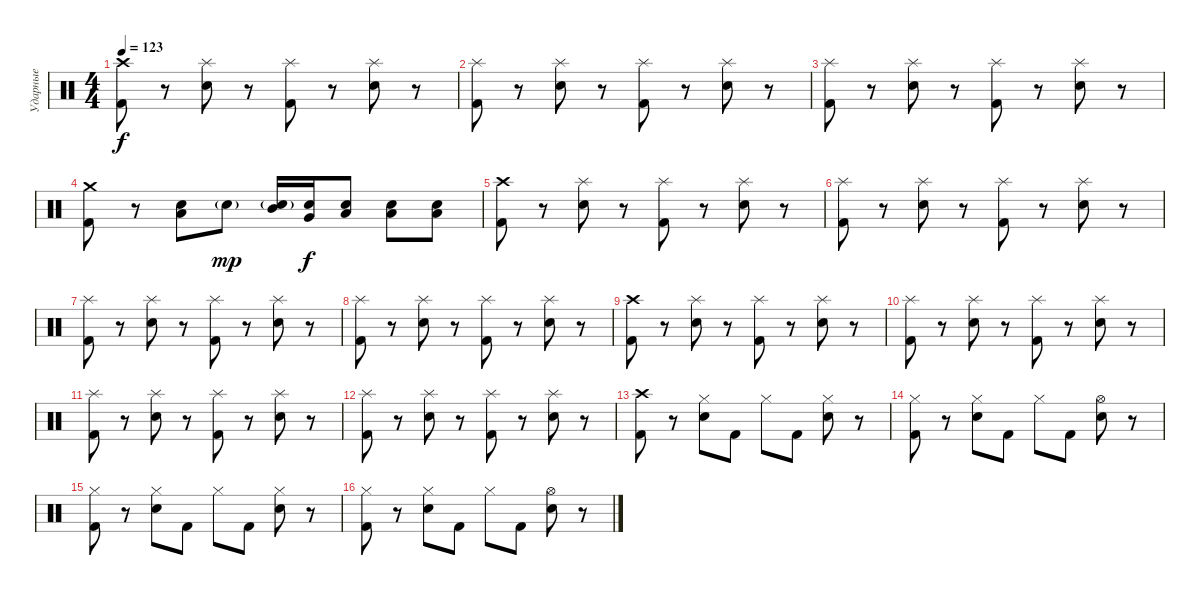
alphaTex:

\track ("Ударные" "Ударные") {instrument percussion}
\staff {score}
\articulation defaults
\ts (4 4)
\tempo 123
\clef neutral
\ks c
("Crash high (hit)" "Kick (hit) 2").8{dy f} r.8 ("Splash (hit)" "Electric Snare (hit)").8 r.8 ("Splash (hit)" "Kick (hit) 2").8 r.8 ("Splash (hit)" "Electric Snare (hit)").8 r.8 |
("Splash (hit)" "Kick (hit) 2").8 r.8 ("Splash (hit)" "Electric Snare (hit)").8 r.8 ("Splash (hit)" "Kick (hit) 2").8 r.8 ("Splash (hit)" "Electric Snare (hit)").8 r.8 |
("Splash (hit)" "Kick (hit) 2").8 r.8 ("Splash (hit)" "Electric Snare (hit)").8 r.8 ("Splash (hit)" "Kick (hit) 2").8 r.8 ("Splash (hit)" "Electric Snare (hit)").8 r.8 |
("Crash medium (hit)" "Kick (hit) 2").8 r.8 ("Low Tom (hit)" "Electric Snare (hit)").8 "Electric Snare (hit)"{g}.8{dy mp} ("Mid Tom (hit)" "Electric Snare (hit)"{g}).16 ("Very Low Tom (hit)" "Electric Snare (hit)").16{dy f} ("Low Floor Tom (hit)" "Electric Snare (hit)").8 ("Low Floor Tom (hit)" "Electric Snare (hit)").8 ("Low Floor Tom (hit)" "Electric Snare (hit)").8 |
("Crash high (hit)" "Kick (hit) 2").8 r.8 ("Splash (hit)" "Electric Snare (hit)").8 r.8 ("Splash (hit)" "Kick (hit) 2").8 r.8 ("Splash (hit)" "Electric Snare (hit)").8 r.8 |
("Splash (hit)" "Kick (hit) 2").8 r.8 ("Splash (hit)" "Electric Snare (hit)").8 r.8 ("Splash (hit)" "Kick (hit) 2").8 r.8 ("Splash (hit)" "Electric Snare (hit)").8 r.8 |
("Splash (hit)" "Kick (hit) 2").8 r.8 ("Splash (hit)" "Electric Snare (hit)").8 r.8 ("Splash (hit)" "Kick (hit) 2").8 r.8 ("Splash (hit)" "Electric Snare (hit)").8 r.8 |
("Splash (hit)" "Kick (hit) 2").8 r.8 ("Splash (hit)" "Electric Snare (hit)").8 r.8 ("Splash (hit)" "Kick (hit) 2").8 r.8 ("Splash (hit)" "Electric Snare (hit)").8 r.8 |
("Crash high (hit)" "Kick (hit) 2").8 r.8 ("Splash (hit)" "Electric Snare (hit)").8 r.8 ("Splash (hit)" "Kick (hit) 2").8 r.8 ("Splash (hit)" "Electric Snare (hit)").8 r.8 |
("Splash (hit)" "Kick (hit) 2").8 r.8 ("Splash (hit)" "Electric Snare (hit)").8 r.8 ("Splash (hit)" "Kick (hit) 2").8 r.8 ("Splash (hit)" "Electric Snare (hit)").8 r.8 |
("Splash (hit)" "Kick (hit) 2").8 r.8 ("Splash (hit)" "Electric Snare (hit)").8 r.8 ("Splash (hit)" "Kick (hit) 2").8 r.8 ("Splash (hit)" "Electric Snare (hit)").8 r.8 |
("Splash (hit)" "Kick (hit) 2").8 r.8 ("Splash (hit)" "Electric Snare (hit)").8 r.8 ("Splash (hit)" "Kick (hit) 2").8 r.8 ("Splash (hit)" "Electric Snare (hit)").8 r.8 |
("Crash high (hit)" "Kick (hit) 2").8 r.8 ("Hi-Hat (closed)" "Electric Snare (hit)").8 "Kick (hit) 2".8 "Hi-Hat (closed)".8 "Kick (hit) 2".8 ("Hi-Hat (closed)" "Electric Snare (hit)").8 r.8 |
("Hi-Hat (closed)" "Kick (hit) 2").8 r.8 ("Hi-Hat (closed)" "Electric Snare (hit)").8 "Kick (hit) 2".8 "Hi-Hat (closed)".8 "Kick (hit) 2".8 ("Hi-Hat (open)" "Electric Snare (hit)").8 r.8 |
("Hi-Hat (closed)" "Kick (hit) 2").8 r.8 ("Hi-Hat (closed)" "Electric Snare (hit)").8 "Kick (hit) 2".8 "Hi-Hat (closed)".8 "Kick (hit) 2".8 ("Hi-Hat (closed)" "Electric Snare (hit)").8 r.8 |
("Hi-Hat (closed)" "Kick (hit) 2").8 r.8 ("Hi-Hat (closed)" "Electric Snare (hit)").8 "Kick (hit) 2".8 "Hi-Hat (closed)".8 "Kick (hit) 2".8 ("Hi-Hat (open)" "Electric Snare (hit)").8 r.8
